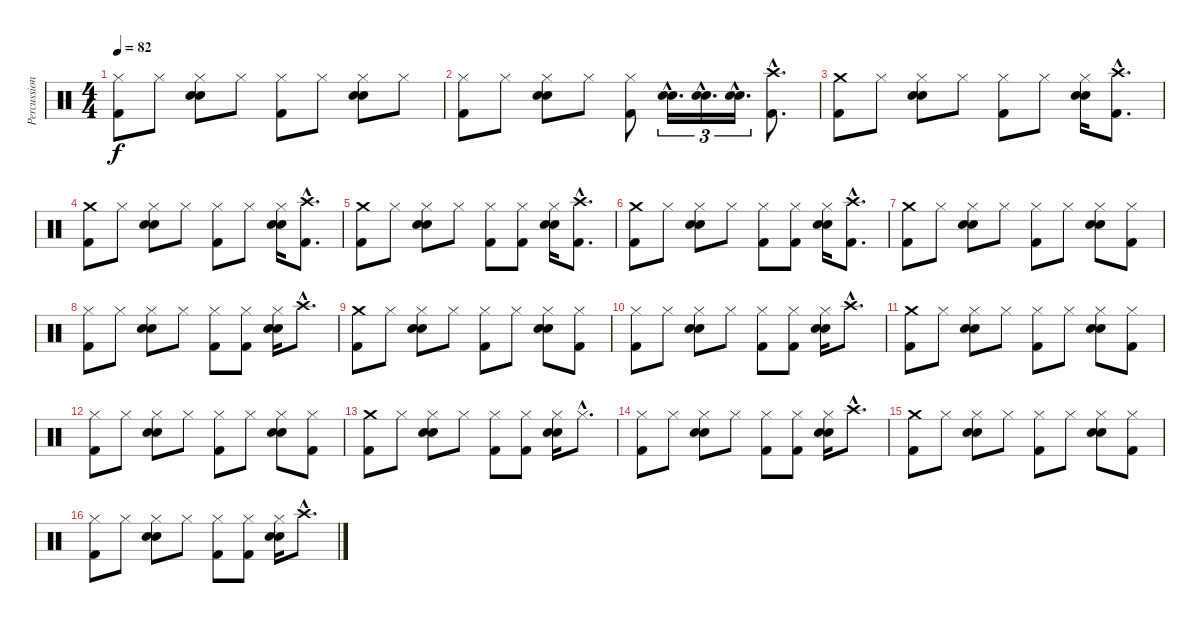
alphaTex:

\track ("Percussion" "Percussion") {instrument percussion}
\staff {score}
\articulation defaults
\ts (4 4)
\tempo 82
\clef neutral
\ks c
("Hi-Hat (closed)" "Kick (hit) 2").8{dy f} "Hi-Hat (closed)".8 ("Hi-Hat (closed)" "Snare (hit) 2" "Electric Snare (hit)").8 "Hi-Hat (closed)".8 ("Hi-Hat (closed)" "Kick (hit) 2").8 "Hi-Hat (closed)".8 ("Hi-Hat (closed)" "Snare (hit) 2" "Electric Snare (hit)").8 "Hi-Hat (closed)".8 |
("Hi-Hat (closed)" "Kick (hit) 2").8 "Hi-Hat (closed)".8 ("Hi-Hat (closed)" "Snare (hit) 2" "Electric Snare (hit)").8 "Hi-Hat (closed)".8 ("Hi-Hat (closed)" "Kick (hit) 2").8 ("Snare (hit) 2"{hac} "Electric Snare (hit)"{hac}).16{d tu (3 2)} ("Snare (hit) 2"{hac} "Electric Snare (hit)"{hac}).16{d tu (3 2)} ("Snare (hit) 2"{hac} "Electric Snare (hit)"{hac}).16{d tu (3 2)} ("Crash high (hit)"{hac} "Kick (hit) 2"{hac}).8{d} |
("Crash medium (hit)" "Kick (hit) 2").8 "Hi-Hat (closed)".8 ("Hi-Hat (closed)" "Snare (hit) 2" "Electric Snare (hit)").8 "Hi-Hat (closed)".8 ("Hi-Hat (closed)" "Kick (hit) 2").8 "Hi-Hat (closed)".8 ("Hi-Hat (closed)" "Snare (hit) 2" "Electric Snare (hit)").16 ("Crash high (hit)"{hac} "Kick (hit) 2"{hac}).8{d} |
("Crash medium (hit)" "Kick (hit) 2").8 "Hi-Hat (closed)".8 ("Hi-Hat (closed)" "Snare (hit) 2" "Electric Snare (hit)").8 "Hi-Hat (closed)".8 ("Hi-Hat (closed)" "Kick (hit) 2").8 "Hi-Hat (closed)".8 ("Hi-Hat (closed)" "Snare (hit) 2" "Electric Snare (hit)").16 ("Crash high (hit)"{hac} "Kick (hit) 2"{hac}).8{d} |
("Crash medium (hit)" "Kick (hit) 2").8 "Hi-Hat (closed)".8 ("Hi-Hat (closed)" "Snare (hit) 2" "Electric Snare (hit)").8 "Hi-Hat (closed)".8 ("Hi-Hat (closed)" "Kick (hit) 2").8 ("Hi-Hat (closed)" "Kick (hit) 2").8 ("Hi-Hat (closed)" "Snare (hit) 2" "Electric Snare (hit)").16 ("Crash high (hit)"{hac} "Kick (hit) 2"{hac}).8{d} |
("Crash medium (hit)" "Kick (hit) 2").8 "Hi-Hat (closed)".8 ("Hi-Hat (closed)" "Snare (hit) 2" "Electric Snare (hit)").8 "Hi-Hat (closed)".8 ("Hi-Hat (closed)" "Kick (hit) 2").8 ("Hi-Hat (closed)" "Kick (hit) 2").8 ("Hi-Hat (closed)" "Snare (hit) 2" "Electric Snare (hit)").16 ("Crash high (hit)"{hac} "Kick (hit) 2"{hac}).8{d} |
("Crash medium (hit)" "Kick (hit) 2").8 "Hi-Hat (closed)".8 ("Hi-Hat (closed)" "Snare (hit) 2" "Electric Snare (hit)").8 "Hi-Hat (closed)".8 ("Hi-Hat (closed)" "Kick (hit) 2").8 "Hi-Hat (closed)".8 ("Hi-Hat (closed)" "Snare (hit) 2" "Electric Snare (hit)").8 ("Hi-Hat (closed)" "Kick (hit) 2").8 |
("Hi-Hat (closed)" "Kick (hit) 2").8 "Hi-Hat (closed)".8 ("Hi-Hat (closed)" "Snare (hit) 2" "Electric Snare (hit)").8 "Hi-Hat (closed)".8 ("Hi-Hat (closed)" "Kick (hit) 2").8 ("Hi-Hat (closed)" "Kick (hit) 2").8 ("Hi-Hat (closed)" "Snare (hit) 2" "Electric Snare (hit)").16 "Crash high (hit)"{hac}.8{d} |
("Crash medium (hit)" "Kick (hit) 2").8 "Hi-Hat (closed)".8 ("Hi-Hat (closed)" "Snare (hit) 2" "Electric Snare (hit)").8 "Hi-Hat (closed)".8 ("Hi-Hat (closed)" "Kick (hit) 2").8 "Hi-Hat (closed)".8 ("Hi-Hat (closed)" "Snare (hit) 2" "Electric Snare (hit)").8 ("Hi-Hat (closed)" "Kick (hit) 2").8 |
("Hi-Hat (closed)" "Kick (hit) 2").8 "Hi-Hat (closed)".8 ("Hi-Hat (closed)" "Snare (hit) 2" "Electric Snare (hit)").8 "Hi-Hat (closed)".8 ("Hi-Hat (closed)" "Kick (hit) 2").8 ("Hi-Hat (closed)" "Kick (hit) 2").8 ("Hi-Hat (closed)" "Snare (hit) 2" "Electric Snare (hit)").16 "Crash high (hit)"{hac}.8{d} |
("Crash medium (hit)" "Kick (hit) 2").8 "Hi-Hat (closed)".8 ("Hi-Hat (closed)" "Snare (hit) 2" "Electric Snare (hit)").8 "Hi-Hat (closed)".8 ("Hi-Hat (closed)" "Kick (hit) 2").8 "Hi-Hat (closed)".8 ("Hi-Hat (closed)" "Snare (hit) 2" "Electric Snare (hit)").8 ("Hi-Hat (closed)" "Kick (hit) 2").8 |
("Hi-Hat (closed)" "Kick (hit) 2").8 "Hi-Hat (closed)".8 ("Hi-Hat (closed)" "Snare (hit) 2" "Electric Snare (hit)").8 "Hi-Hat (closed)".8 ("Hi-Hat (closed)" "Kick (hit) 2").8 "Hi-Hat (closed)".8 ("Hi-Hat (closed)" "Snare (hit) 2" "Electric Snare (hit)").8 ("Hi-Hat (closed)" "Kick (hit) 2").8 |
("Crash medium (hit)" "Kick (hit) 2").8 "Hi-Hat (closed)".8 ("Hi-Hat (closed)" "Snare (hit) 2" "Electric Snare (hit)").8 "Hi-Hat (closed)".8 ("Hi-Hat (closed)" "Kick (hit) 2").8 ("Hi-Hat (closed)" "Kick (hit) 2").8 ("Hi-Hat (closed)" "Snare (hit) 2" "Electric Snare (hit)").16 "Hi-Hat (closed)"{hac}.8{d} |
("Hi-Hat (closed)" "Kick (hit) 2").8 "Hi-Hat (closed)".8 ("Hi-Hat (closed)" "Snare (hit) 2" "Electric Snare (hit)").8 "Hi-Hat (closed)".8 ("Hi-Hat (closed)" "Kick (hit) 2").8 ("Hi-Hat (closed)" "Kick (hit) 2").8 ("Hi-Hat (closed)" "Snare (hit) 2" "Electric Snare (hit)").16 "Crash high (hit)"{hac}.8{d} |
("Crash medium (hit)" "Kick (hit) 2").8 "Hi-Hat (closed)".8 ("Hi-Hat (closed)" "Snare (hit) 2" "Electric Snare (hit)").8 "Hi-Hat (closed)".8 ("Hi-Hat (closed)" "Kick (hit) 2").8 "Hi-Hat (closed)".8 ("Hi-Hat (closed)" "Snare (hit) 2" "Electric Snare (hit)").8 ("Hi-Hat (closed)" "Kick (hit) 2").8 |
("Hi-Hat (closed)" "Kick (hit) 2").8 "Hi-Hat (closed)".8 ("Hi-Hat (closed)" "Snare (hit) 2" "Electric Snare (hit)").8 "Hi-Hat (closed)".8 ("Hi-Hat (closed)" "Kick (hit) 2").8 ("Hi-Hat (closed)" "Kick (hit) 2").8 ("Hi-Hat (closed)" "Snare (hit) 2" "Electric Snare (hit)").16 "Crash high (hit)"{hac}.8{d}
